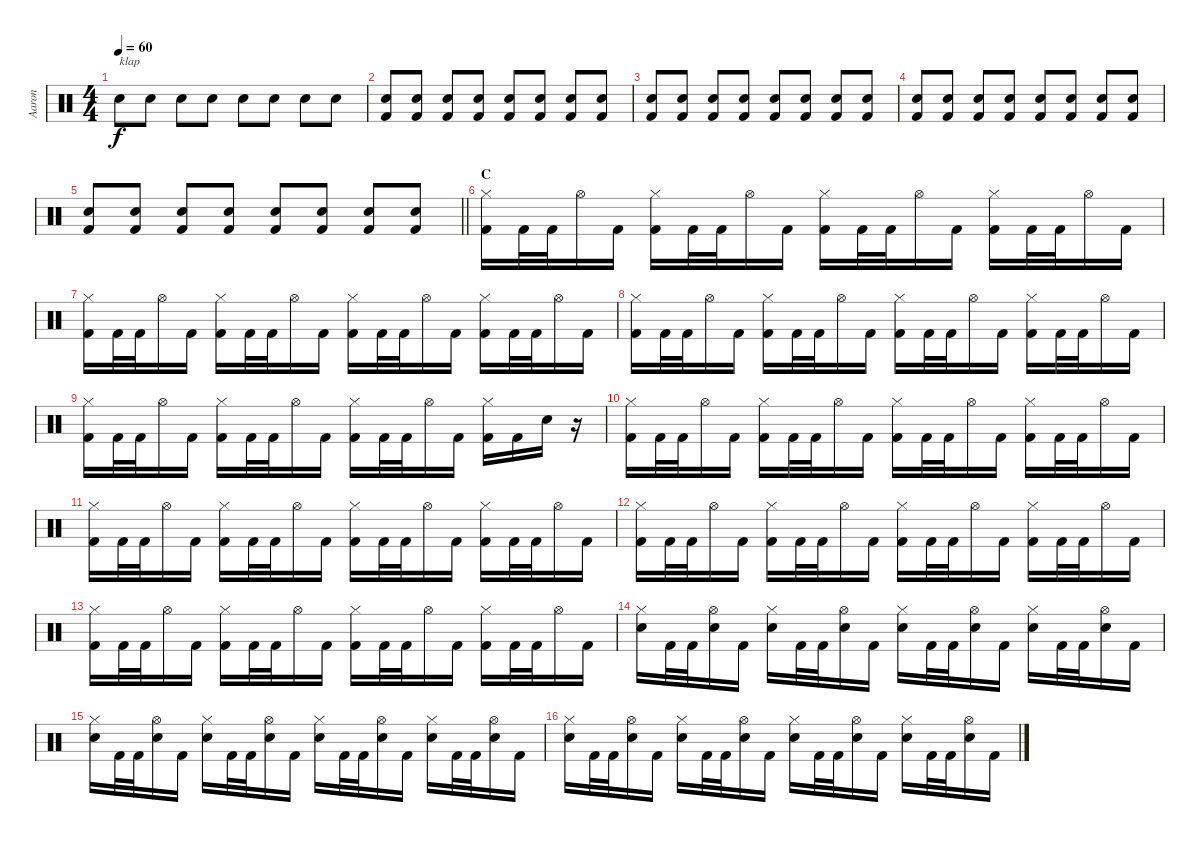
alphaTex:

\track ("Aaron" "Aaron") {instrument percussion}
\staff {score}
\articulation defaults
\ts (4 4)
\tempo 60
\clef neutral
\ks c "Hand Clap (hit)".8{txt "klap" dy f} "Hand Clap (hit)".8 "Hand Clap (hit)".8 "Hand Clap (hit)".8 "Hand Clap (hit)".8 "Hand Clap (hit)".8 "Hand Clap (hit)".8 "Hand Clap (hit)".8
|
("Hand Clap (hit)" "Kick (hit) 2").8 ("Hand Clap (hit)" "Kick (hit) 2").8 ("Hand Clap (hit)" "Kick (hit) 2").8 ("Hand Clap (hit)" "Kick (hit) 2").8 ("Hand Clap (hit)" "Kick (hit) 2").8 ("Hand Clap (hit)" "Kick (hit) 2").8 ("Hand Clap (hit)" "Kick (hit) 2").8 ("Hand Clap (hit)" "Kick (hit) 2").8 |
("Hand Clap (hit)" "Kick (hit) 2").8 ("Hand Clap (hit)" "Kick (hit) 2").8 ("Hand Clap (hit)" "Kick (hit) 2").8 ("Hand Clap (hit)" "Kick (hit) 2").8 ("Hand Clap (hit)" "Kick (hit) 2").8 ("Hand Clap (hit)" "Kick (hit) 2").8 ("Hand Clap (hit)" "Kick (hit) 2").8 ("Hand Clap (hit)" "Kick (hit) 2").8 |
("Hand Clap (hit)" "Kick (hit) 2").8 ("Hand Clap (hit)" "Kick (hit) 2").8 ("Hand Clap (hit)" "Kick (hit) 2").8 ("Hand Clap (hit)" "Kick (hit) 2").8 ("Hand Clap (hit)" "Kick (hit) 2").8 ("Hand Clap (hit)" "Kick (hit) 2").8 ("Hand Clap (hit)" "Kick (hit) 2").8 ("Hand Clap (hit)" "Kick (hit) 2").8 |
\barLineRight lightlight
("Hand Clap (hit)" "Kick (hit) 2").8 ("Hand Clap (hit)" "Kick (hit) 2").8 ("Hand Clap (hit)" "Kick (hit) 2").8 ("Hand Clap (hit)" "Kick (hit) 2").8 ("Hand Clap (hit)" "Kick (hit) 2").8 ("Hand Clap (hit)" "Kick (hit) 2").8 ("Hand Clap (hit)" "Kick (hit) 2").8 ("Hand Clap (hit)" "Kick (hit) 2").8 |
\section ("" "C")
("Hi-Hat (closed)" "Kick (hit) 2").16 "Kick (hit) 2".32 "Kick (hit) 2".32 "Hi-Hat (open)".16 "Kick (hit) 2".16 ("Hi-Hat (closed)" "Kick (hit) 2").16 "Kick (hit) 2".32 "Kick (hit) 2".32 "Hi-Hat (open)".16 "Kick (hit) 2".16 ("Hi-Hat (closed)" "Kick (hit) 2").16 "Kick (hit) 2".32 "Kick (hit) 2".32 "Hi-Hat (open)".16 "Kick (hit) 2".16 ("Hi-Hat (closed)" "Kick (hit) 2").16 "Kick (hit) 2".32 "Kick (hit) 2".32 "Hi-Hat (open)".16 "Kick (hit) 2".16 |
("Hi-Hat (closed)" "Kick (hit) 2").16 "Kick (hit) 2".32 "Kick (hit) 2".32 "Hi-Hat (open)".16 "Kick (hit) 2".16 ("Hi-Hat (closed)" "Kick (hit) 2").16 "Kick (hit) 2".32 "Kick (hit) 2".32 "Hi-Hat (open)".16 "Kick (hit) 2".16 ("Hi-Hat (closed)" "Kick (hit) 2").16 "Kick (hit) 2".32 "Kick (hit) 2".32 "Hi-Hat (open)".16 "Kick (hit) 2".16 ("Hi-Hat (closed)" "Kick (hit) 2").16 "Kick (hit) 2".32 "Kick (hit) 2".32 "Hi-Hat (open)".16 "Kick (hit) 2".16 |
("Hi-Hat (closed)" "Kick (hit) 2").16 "Kick (hit) 2".32 "Kick (hit) 2".32 "Hi-Hat (open)".16 "Kick (hit) 2".16 ("Hi-Hat (closed)" "Kick (hit) 2").16 "Kick (hit) 2".32 "Kick (hit) 2".32 "Hi-Hat (open)".16 "Kick (hit) 2".16 ("Hi-Hat (closed)" "Kick (hit) 2").16 "Kick (hit) 2".32 "Kick (hit) 2".32 "Hi-Hat (open)".16 "Kick (hit) 2".16 ("Hi-Hat (closed)" "Kick (hit) 2").16 "Kick (hit) 2".32 "Kick (hit) 2".32 "Hi-Hat (open)".16 "Kick (hit) 2".16 |
("Hi-Hat (closed)" "Kick (hit) 2").16 "Kick (hit) 2".32 "Kick (hit) 2".32 "Hi-Hat (open)".16 "Kick (hit) 2".16 ("Hi-Hat (closed)" "Kick (hit) 2").16 "Kick (hit) 2".32 "Kick (hit) 2".32 "Hi-Hat (open)".16 "Kick (hit) 2".16 ("Hi-Hat (closed)" "Kick (hit) 2").16 "Kick (hit) 2".32 "Kick (hit) 2".32 "Hi-Hat (open)".16 "Kick (hit) 2".16 ("Hi-Hat (closed)" "Kick (hit) 2").16 "Kick (hit) 2".16 "Snare (hit) 2".16 r.16 |
("Hi-Hat (closed)" "Kick (hit) 2").16 "Kick (hit) 2".32 "Kick (hit) 2".32 "Hi-Hat (open)".16 "Kick (hit) 2".16 ("Hi-Hat (closed)" "Kick (hit) 2").16 "Kick (hit) 2".32 "Kick (hit) 2".32 "Hi-Hat (open)".16 "Kick (hit) 2".16 ("Hi-Hat (closed)" "Kick (hit) 2").16 "Kick (hit) 2".32 "Kick (hit) 2".32 "Hi-Hat (open)".16 "Kick (hit) 2".16 ("Hi-Hat (closed)" "Kick (hit) 2").16 "Kick (hit) 2".32 "Kick (hit) 2".32 "Hi-Hat (open)".16 "Kick (hit) 2".16 |
("Hi-Hat (closed)" "Kick (hit) 2").16 "Kick (hit) 2".32 "Kick (hit) 2".32 "Hi-Hat (open)".16 "Kick (hit) 2".16 ("Hi-Hat (closed)" "Kick (hit) 2").16 "Kick (hit) 2".32 "Kick (hit) 2".32 "Hi-Hat (open)".16 "Kick (hit) 2".16 ("Hi-Hat (closed)" "Kick (hit) 2").16 "Kick (hit) 2".32 "Kick (hit) 2".32 "Hi-Hat (open)".16 "Kick (hit) 2".16 ("Hi-Hat (closed)" "Kick (hit) 2").16 "Kick (hit) 2".32 "Kick (hit) 2".32 "Hi-Hat (open)".16 "Kick (hit) 2".16 |
("Hi-Hat (closed)" "Kick (hit) 2").16 "Kick (hit) 2".32 "Kick (hit) 2".32 "Hi-Hat (open)".16 "Kick (hit) 2".16 ("Hi-Hat (closed)" "Kick (hit) 2").16 "Kick (hit) 2".32 "Kick (hit) 2".32 "Hi-Hat (open)".16 "Kick (hit) 2".16 ("Hi-Hat (closed)" "Kick (hit) 2").16 "Kick (hit) 2".32 "Kick (hit) 2".32 "Hi-Hat (open)".16 "Kick (hit) 2".16 ("Hi-Hat (closed)" "Kick (hit) 2").16 "Kick (hit) 2".32 "Kick (hit) 2".32 "Hi-Hat (open)".16 "Kick (hit) 2".16 |
("Hi-Hat (closed)" "Kick (hit) 2").16 "Kick (hit) 2".32 "Kick (hit) 2".32 "Hi-Hat (open)".16 "Kick (hit) 2".16 ("Hi-Hat (closed)" "Kick (hit) 2").16 "Kick (hit) 2".32 "Kick (hit) 2".32 "Hi-Hat (open)".16 "Kick (hit) 2".16 ("Hi-Hat (closed)" "Kick (hit) 2").16 "Kick (hit) 2".32 "Kick (hit) 2".32 "Hi-Hat (open)".16 "Kick (hit) 2".16 ("Hi-Hat (closed)" "Kick (hit) 2").16 "Kick (hit) 2".32 "Kick (hit) 2".32 "Hi-Hat (open)".16 "Kick (hit) 2".16 |
("Hi-Hat (closed)" "Snare (hit) 2").16 "Kick (hit) 2".32 "Kick (hit) 2".32 ("Hi-Hat (open)" "Snare (hit) 2").16 "Kick (hit) 2".16 ("Hi-Hat (closed)" "Snare (hit) 2").16 "Kick (hit) 2".32 "Kick (hit) 2".32 ("Hi-Hat (open)" "Snare (hit) 2").16 "Kick (hit) 2".16 ("Hi-Hat (closed)" "Snare (hit) 2").16 "Kick (hit) 2".32 "Kick (hit) 2".32 ("Hi-Hat (open)" "Snare (hit) 2").16 "Kick (hit) 2".16 ("Hi-Hat (closed)" "Snare (hit) 2").16 "Kick (hit) 2".32 "Kick (hit) 2".32 ("Hi-Hat (open)" "Snare (hit) 2").16 "Kick (hit) 2".16 |
("Hi-Hat (closed)" "Snare (hit) 2").16 "Kick (hit) 2".32 "Kick (hit) 2".32 ("Hi-Hat (open)" "Snare (hit) 2").16 "Kick (hit) 2".16 ("Hi-Hat (closed)" "Snare (hit) 2").16 "Kick (hit) 2".32 "Kick (hit) 2".32 ("Hi-Hat (open)" "Snare (hit) 2").16 "Kick (hit) 2".16 ("Hi-Hat (closed)" "Snare (hit) 2").16 "Kick (hit) 2".32 "Kick (hit) 2".32 ("Hi-Hat (open)" "Snare (hit) 2").16 "Kick (hit) 2".16 ("Hi-Hat (closed)" "Snare (hit) 2").16 "Kick (hit) 2".32 "Kick (hit) 2".32 ("Hi-Hat (open)" "Snare (hit) 2").16 "Kick (hit) 2".16 |
("Hi-Hat (closed)" "Snare (hit) 2").16 "Kick (hit) 2".32 "Kick (hit) 2".32 ("Hi-Hat (open)" "Snare (hit) 2").16 "Kick (hit) 2".16 ("Hi-Hat (closed)" "Snare (hit) 2").16 "Kick (hit) 2".32 "Kick (hit) 2".32 ("Hi-Hat (open)" "Snare (hit) 2").16 "Kick (hit) 2".16 ("Hi-Hat (closed)" "Snare (hit) 2").16 "Kick (hit) 2".32 "Kick (hit) 2".32 ("Hi-Hat (open)" "Snare (hit) 2").16 "Kick (hit) 2".16 ("Hi-Hat (closed)" "Snare (hit) 2").16 "Kick (hit) 2".32 "Kick (hit) 2".32 ("Hi-Hat (open)" "Snare (hit) 2").16 "Kick (hit) 2".16
